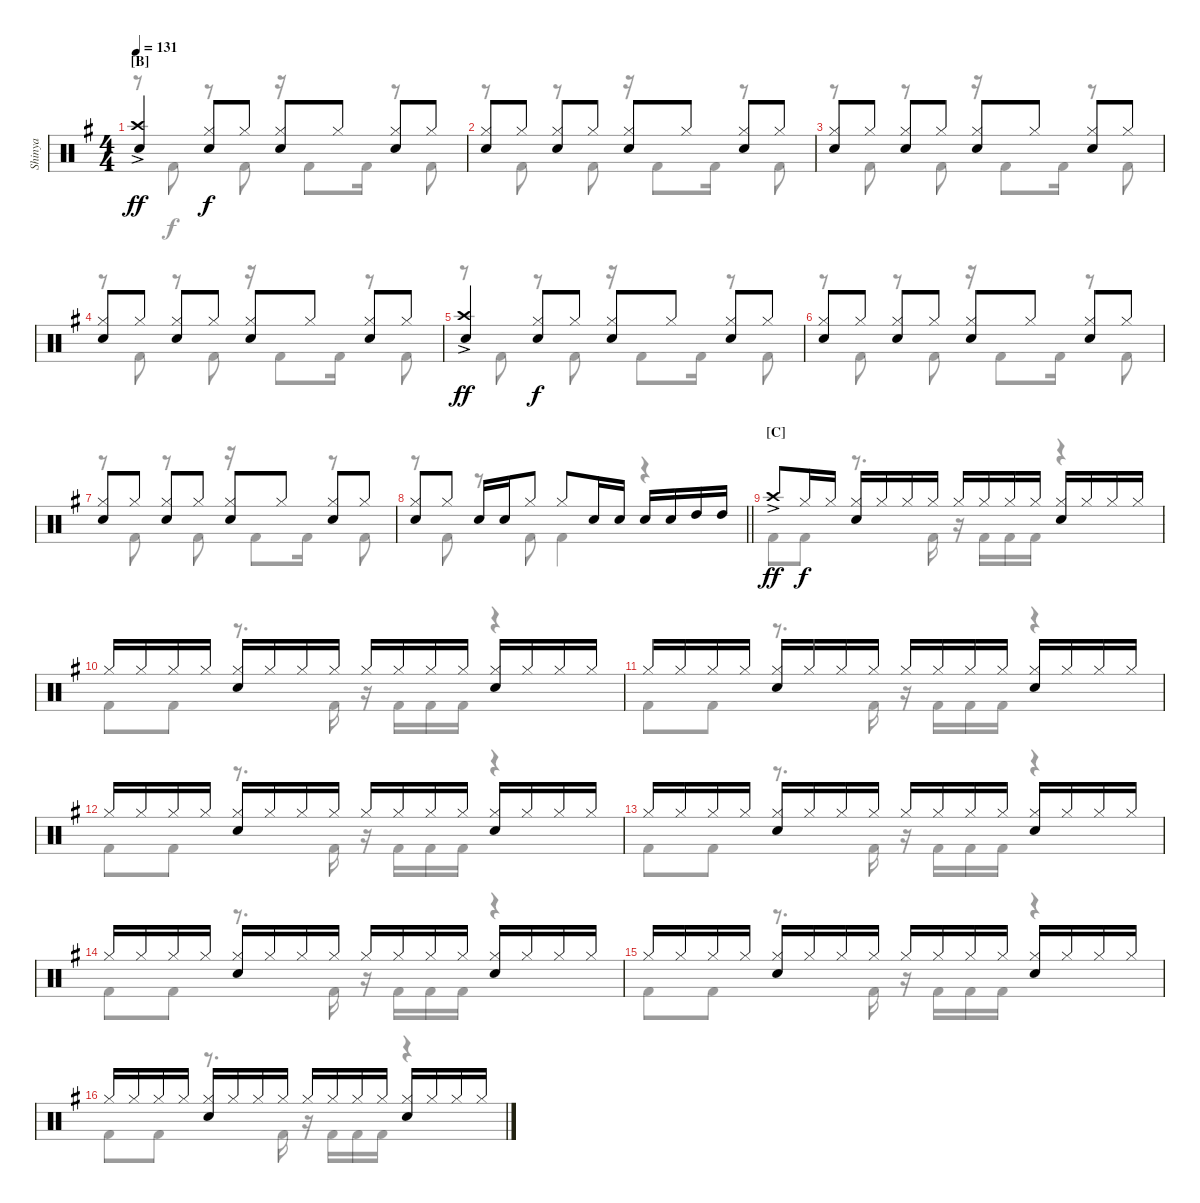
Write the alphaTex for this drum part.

\track ("Shinya" "Shinya") {instrument percussion}
\staff {score}
\articulation defaults
\voice
\ts (4 4)
\section ("" "[B]")
\tempo 131
\clef neutral
\ks eminor
("Crash high (hit)"{ac} "Snare (hit) 2").4{dy ff} ("Hi-Hat (closed)" "Snare (hit) 2").8{dy f} "Hi-Hat (closed)".8 ("Hi-Hat (closed)" "Snare (hit) 2").8 "Hi-Hat (closed)".8 ("Hi-Hat (closed)" "Snare (hit) 2").8 "Hi-Hat (closed)".8 |
("Hi-Hat (closed)" "Snare (hit) 2").8 "Hi-Hat (closed)".8 ("Hi-Hat (closed)" "Snare (hit) 2").8 "Hi-Hat (closed)".8 ("Hi-Hat (closed)" "Snare (hit) 2").8 "Hi-Hat (closed)".8 ("Hi-Hat (closed)" "Snare (hit) 2").8 "Hi-Hat (closed)".8 |
("Hi-Hat (closed)" "Snare (hit) 2").8 "Hi-Hat (closed)".8 ("Hi-Hat (closed)" "Snare (hit) 2").8 "Hi-Hat (closed)".8 ("Hi-Hat (closed)" "Snare (hit) 2").8 "Hi-Hat (closed)".8 ("Hi-Hat (closed)" "Snare (hit) 2").8 "Hi-Hat (closed)".8 |
("Hi-Hat (closed)" "Snare (hit) 2").8 "Hi-Hat (closed)".8 ("Hi-Hat (closed)" "Snare (hit) 2").8 "Hi-Hat (closed)".8 ("Hi-Hat (closed)" "Snare (hit) 2").8 "Hi-Hat (closed)".8 ("Hi-Hat (closed)" "Snare (hit) 2").8 "Hi-Hat (closed)".8 |
("Crash high (hit)"{ac} "Snare (hit) 2").4{dy ff} ("Hi-Hat (closed)" "Snare (hit) 2").8{dy f} "Hi-Hat (closed)".8 ("Hi-Hat (closed)" "Snare (hit) 2").8 "Hi-Hat (closed)".8 ("Hi-Hat (closed)" "Snare (hit) 2").8 "Hi-Hat (closed)".8 |
("Hi-Hat (closed)" "Snare (hit) 2").8 "Hi-Hat (closed)".8 ("Hi-Hat (closed)" "Snare (hit) 2").8 "Hi-Hat (closed)".8 ("Hi-Hat (closed)" "Snare (hit) 2").8 "Hi-Hat (closed)".8 ("Hi-Hat (closed)" "Snare (hit) 2").8 "Hi-Hat (closed)".8 |
("Hi-Hat (closed)" "Snare (hit) 2").8 "Hi-Hat (closed)".8 ("Hi-Hat (closed)" "Snare (hit) 2").8 "Hi-Hat (closed)".8 ("Hi-Hat (closed)" "Snare (hit) 2").8 "Hi-Hat (closed)".8 ("Hi-Hat (closed)" "Snare (hit) 2").8 "Hi-Hat (closed)".8 |
\barLineRight lightlight
("Hi-Hat (closed)" "Snare (hit) 2").8 "Hi-Hat (closed)".8 "Snare (hit) 2".16 "Snare (hit) 2".16 "Hi-Hat (closed)".8 "Hi-Hat (closed)".8 "Snare (hit) 2".16 "Snare (hit) 2".16 "Snare (hit) 2".16 "Snare (hit) 2".16 "High Tom (hit)".16 "High Tom (hit)".16 |
\section ("" "[C]")
"Crash high (hit)"{ac}.8{dy ff} "Hi-Hat (closed)".16{dy f} "Hi-Hat (closed)".16 ("Hi-Hat (closed)" "Snare (hit) 2").16 "Hi-Hat (closed)".16 "Hi-Hat (closed)".16 "Hi-Hat (closed)".16 "Hi-Hat (closed)".16 "Hi-Hat (closed)".16 "Hi-Hat (closed)".16 "Hi-Hat (closed)".16 ("Hi-Hat (closed)" "Snare (hit) 2").16 "Hi-Hat (closed)".16 "Hi-Hat (closed)".16 "Hi-Hat (closed)".16 |
"Hi-Hat (closed)".16 "Hi-Hat (closed)".16 "Hi-Hat (closed)".16 "Hi-Hat (closed)".16 ("Hi-Hat (closed)" "Snare (hit) 2").16 "Hi-Hat (closed)".16 "Hi-Hat (closed)".16 "Hi-Hat (closed)".16 "Hi-Hat (closed)".16 "Hi-Hat (closed)".16 "Hi-Hat (closed)".16 "Hi-Hat (closed)".16 ("Hi-Hat (closed)" "Snare (hit) 2").16 "Hi-Hat (closed)".16 "Hi-Hat (closed)".16 "Hi-Hat (closed)".16 |
"Hi-Hat (closed)".16 "Hi-Hat (closed)".16 "Hi-Hat (closed)".16 "Hi-Hat (closed)".16 ("Hi-Hat (closed)" "Snare (hit) 2").16 "Hi-Hat (closed)".16 "Hi-Hat (closed)".16 "Hi-Hat (closed)".16 "Hi-Hat (closed)".16 "Hi-Hat (closed)".16 "Hi-Hat (closed)".16 "Hi-Hat (closed)".16 ("Hi-Hat (closed)" "Snare (hit) 2").16 "Hi-Hat (closed)".16 "Hi-Hat (closed)".16 "Hi-Hat (closed)".16 |
"Hi-Hat (closed)".16 "Hi-Hat (closed)".16 "Hi-Hat (closed)".16 "Hi-Hat (closed)".16 ("Hi-Hat (closed)" "Snare (hit) 2").16 "Hi-Hat (closed)".16 "Hi-Hat (closed)".16 "Hi-Hat (closed)".16 "Hi-Hat (closed)".16 "Hi-Hat (closed)".16 "Hi-Hat (closed)".16 "Hi-Hat (closed)".16 ("Hi-Hat (closed)" "Snare (hit) 2").16 "Hi-Hat (closed)".16 "Hi-Hat (closed)".16 "Hi-Hat (closed)".16 |
"Hi-Hat (closed)".16 "Hi-Hat (closed)".16 "Hi-Hat (closed)".16 "Hi-Hat (closed)".16 ("Hi-Hat (closed)" "Snare (hit) 2").16 "Hi-Hat (closed)".16 "Hi-Hat (closed)".16 "Hi-Hat (closed)".16 "Hi-Hat (closed)".16 "Hi-Hat (closed)".16 "Hi-Hat (closed)".16 "Hi-Hat (closed)".16 ("Hi-Hat (closed)" "Snare (hit) 2").16 "Hi-Hat (closed)".16 "Hi-Hat (closed)".16 "Hi-Hat (closed)".16 |
"Hi-Hat (closed)".16 "Hi-Hat (closed)".16 "Hi-Hat (closed)".16 "Hi-Hat (closed)".16 ("Hi-Hat (closed)" "Snare (hit) 2").16 "Hi-Hat (closed)".16 "Hi-Hat (closed)".16 "Hi-Hat (closed)".16 "Hi-Hat (closed)".16 "Hi-Hat (closed)".16 "Hi-Hat (closed)".16 "Hi-Hat (closed)".16 ("Hi-Hat (closed)" "Snare (hit) 2").16 "Hi-Hat (closed)".16 "Hi-Hat (closed)".16 "Hi-Hat (closed)".16 |
"Hi-Hat (closed)".16 "Hi-Hat (closed)".16 "Hi-Hat (closed)".16 "Hi-Hat (closed)".16 ("Hi-Hat (closed)" "Snare (hit) 2").16 "Hi-Hat (closed)".16 "Hi-Hat (closed)".16 "Hi-Hat (closed)".16 "Hi-Hat (closed)".16 "Hi-Hat (closed)".16 "Hi-Hat (closed)".16 "Hi-Hat (closed)".16 ("Hi-Hat (closed)" "Snare (hit) 2").16 "Hi-Hat (closed)".16 "Hi-Hat (closed)".16 "Hi-Hat (closed)".16 |
"Hi-Hat (closed)".16 "Hi-Hat (closed)".16 "Hi-Hat (closed)".16 "Hi-Hat (closed)".16 ("Hi-Hat (closed)" "Snare (hit) 2").16 "Hi-Hat (closed)".16 "Hi-Hat (closed)".16 "Hi-Hat (closed)".16 "Hi-Hat (closed)".16 "Hi-Hat (closed)".16 "Hi-Hat (closed)".16 "Hi-Hat (closed)".16 ("Hi-Hat (closed)" "Snare (hit) 2").16 "Hi-Hat (closed)".16 "Hi-Hat (closed)".16 "Hi-Hat (closed)".16
\voice
\clef neutral
\ottava regular
\simile none
\ks eminor
r.8{dy f} "Kick (hit) 2".8 r.8 "Kick (hit) 2".8 r.16 "Kick (hit) 2".8 "Kick (hit) 2".16 r.8 "Kick (hit) 2".8 |
r.8 "Kick (hit) 2".8 r.8 "Kick (hit) 2".8 r.16 "Kick (hit) 2".8 "Kick (hit) 2".16 r.8 "Kick (hit) 2".8 |
r.8 "Kick (hit) 2".8 r.8 "Kick (hit) 2".8 r.16 "Kick (hit) 2".8 "Kick (hit) 2".16 r.8 "Kick (hit) 2".8 |
r.8 "Kick (hit) 2".8 r.8 "Kick (hit) 2".8 r.16 "Kick (hit) 2".8 "Kick (hit) 2".16 r.8 "Kick (hit) 2".8 |
r.8 "Kick (hit) 2".8 r.8 "Kick (hit) 2".8 r.16 "Kick (hit) 2".8 "Kick (hit) 2".16 r.8 "Kick (hit) 2".8 |
r.8 "Kick (hit) 2".8 r.8 "Kick (hit) 2".8 r.16 "Kick (hit) 2".8 "Kick (hit) 2".16 r.8 "Kick (hit) 2".8 |
r.8 "Kick (hit) 2".8 r.8 "Kick (hit) 2".8 r.16 "Kick (hit) 2".8 "Kick (hit) 2".16 r.8 "Kick (hit) 2".8 |
\barLineRight lightlight
r.8 "Kick (hit) 2".8 r.8 "Kick (hit) 2".8 "Kick (hit) 2".4 r.4 |
"Kick (hit) 2".8 "Kick (hit) 2".8 r.8{d} "Kick (hit) 2".16 r.16 "Kick (hit) 2".16 "Kick (hit) 2".16 "Kick (hit) 2".16 r.4 |
"Kick (hit) 2".8 "Kick (hit) 2".8 r.8{d} "Kick (hit) 2".16 r.16 "Kick (hit) 2".16 "Kick (hit) 2".16 "Kick (hit) 2".16 r.4 |
"Kick (hit) 2".8 "Kick (hit) 2".8 r.8{d} "Kick (hit) 2".16 r.16 "Kick (hit) 2".16 "Kick (hit) 2".16 "Kick (hit) 2".16 r.4 |
"Kick (hit) 2".8 "Kick (hit) 2".8 r.8{d} "Kick (hit) 2".16 r.16 "Kick (hit) 2".16 "Kick (hit) 2".16 "Kick (hit) 2".16 r.4 |
"Kick (hit) 2".8 "Kick (hit) 2".8 r.8{d} "Kick (hit) 2".16 r.16 "Kick (hit) 2".16 "Kick (hit) 2".16 "Kick (hit) 2".16 r.4 |
"Kick (hit) 2".8 "Kick (hit) 2".8 r.8{d} "Kick (hit) 2".16 r.16 "Kick (hit) 2".16 "Kick (hit) 2".16 "Kick (hit) 2".16 r.4 |
"Kick (hit) 2".8 "Kick (hit) 2".8 r.8{d} "Kick (hit) 2".16 r.16 "Kick (hit) 2".16 "Kick (hit) 2".16 "Kick (hit) 2".16 r.4 |
"Kick (hit) 2".8 "Kick (hit) 2".8 r.8{d} "Kick (hit) 2".16 r.16 "Kick (hit) 2".16 "Kick (hit) 2".16 "Kick (hit) 2".16 r.4
